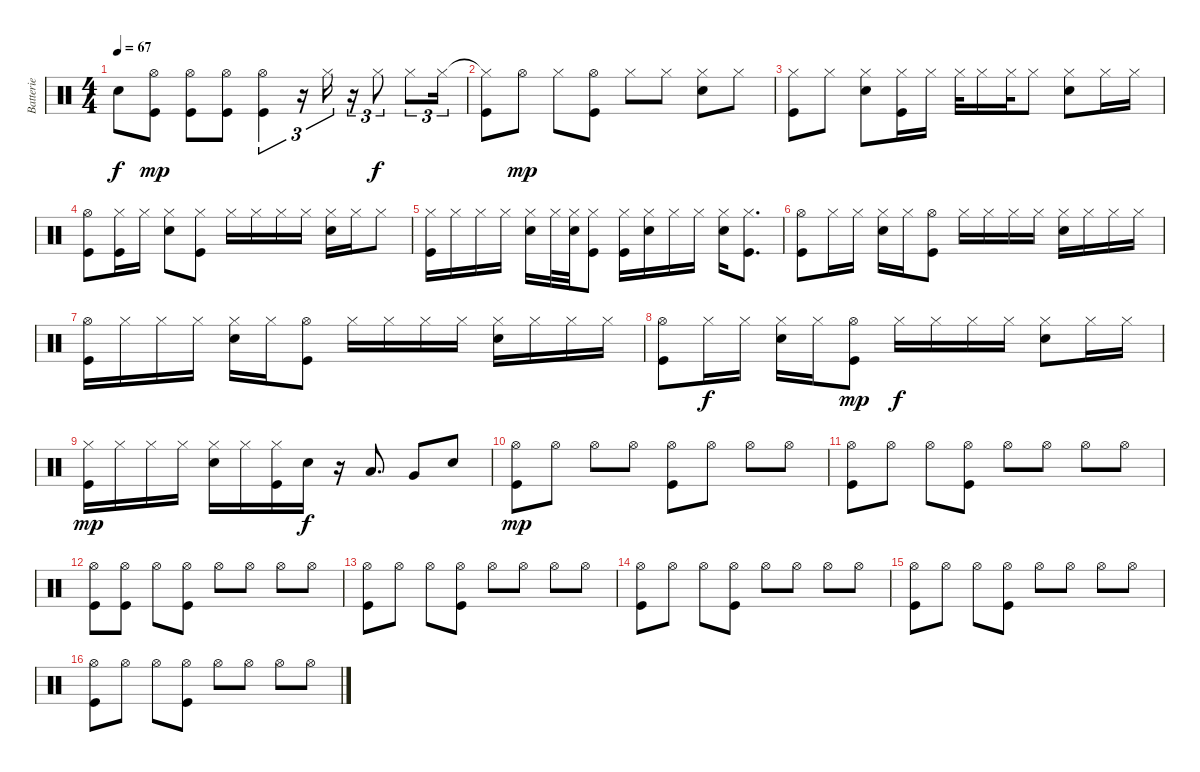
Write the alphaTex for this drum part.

\track ("Batterie" "Batterie") {instrument percussion}
\staff {score}
\articulation defaults
\ts (4 4)
\tempo 67
\clef neutral
\ks c "Snare (hit) 2".8{dy f}
("Hi-Hat (open)" "Kick (hit)").8{dy mp} ("Hi-Hat (open)" "Kick (hit)").8 ("Hi-Hat (open)" "Kick (hit)").8 ("Hi-Hat (open)" "Kick (hit)").4{tu (3 2)} r.16{tu (3 2)} "Hi-Hat (closed)".16{tu (3 2)} r.16{tu (3 2)} "Hi-Hat (closed)".8{tu (3 2) dy f} "Hi-Hat (closed)".8{tu (3 2)} "Hi-Hat (closed)".16{tu (3 2)} |
("Hi-Hat (closed)"{t} "Kick (hit)").8 "Hi-Hat (open)".8{dy mp} "Hi-Hat (closed)".8 ("Hi-Hat (open)" "Kick (hit)").8 "Hi-Hat (closed)".8 "Hi-Hat (closed)".8 ("Hi-Hat (closed)" "Snare (hit) 2").8 "Hi-Hat (closed)".8 |
("Hi-Hat (closed)" "Kick (hit)").8 "Hi-Hat (closed)".8 ("Hi-Hat (closed)" "Snare (hit) 2").8 ("Hi-Hat (closed)" "Kick (hit)").16 "Hi-Hat (closed)".16 "Hi-Hat (closed)".32 "Hi-Hat (closed)".16 "Hi-Hat (closed)".32 "Hi-Hat (closed)".8 ("Hi-Hat (closed)" "Snare (hit) 2").8 "Hi-Hat (closed)".16 "Hi-Hat (closed)".16 |
("Hi-Hat (open)" "Kick (hit)").8 ("Hi-Hat (closed)" "Kick (hit)").16 "Hi-Hat (closed)".16 ("Hi-Hat (closed)" "Snare (hit) 2").8 ("Hi-Hat (closed)" "Kick (hit)").8 "Hi-Hat (closed)".16 "Hi-Hat (closed)".16 "Hi-Hat (closed)".16 "Hi-Hat (closed)".16 ("Hi-Hat (closed)" "Snare (hit) 2").16 "Hi-Hat (closed)".16 "Hi-Hat (closed)".8 |
("Hi-Hat (closed)" "Kick (hit)").16 "Hi-Hat (closed)".16 "Hi-Hat (closed)".16 "Hi-Hat (closed)".16 ("Hi-Hat (closed)" "Snare (hit) 2").16 "Hi-Hat (closed)".32 ("Hi-Hat (closed)" "Snare (hit) 2").32 ("Hi-Hat (closed)" "Kick (hit)").8 ("Hi-Hat (closed)" "Kick (hit)").16 ("Hi-Hat (closed)" "Snare (hit) 2").16 "Hi-Hat (closed)".16 "Hi-Hat (closed)".16 ("Hi-Hat (closed)" "Snare (hit) 2").16 ("Hi-Hat (closed)" "Kick (hit)").8{d} |
("Hi-Hat (open)" "Kick (hit)").8 "Hi-Hat (closed)".16 "Hi-Hat (closed)".16 ("Hi-Hat (closed)" "Snare (hit) 2").16 "Hi-Hat (closed)".16 ("Hi-Hat (open)" "Kick (hit)").8 "Hi-Hat (closed)".16 "Hi-Hat (closed)".16 "Hi-Hat (closed)".16 "Hi-Hat (closed)".16 ("Hi-Hat (closed)" "Snare (hit) 2").16 "Hi-Hat (closed)".16 "Hi-Hat (closed)".16 "Hi-Hat (closed)".16 |
("Hi-Hat (open)" "Kick (hit)").16 "Hi-Hat (closed)".16 "Hi-Hat (closed)".16 "Hi-Hat (closed)".16 ("Hi-Hat (closed)" "Snare (hit) 2").16 "Hi-Hat (closed)".16 ("Hi-Hat (open)" "Kick (hit)").8 "Hi-Hat (closed)".16 "Hi-Hat (closed)".16 "Hi-Hat (closed)".16 "Hi-Hat (closed)".16 ("Hi-Hat (closed)" "Snare (hit) 2").16 "Hi-Hat (closed)".16 "Hi-Hat (closed)".16 "Hi-Hat (closed)".16 |
("Hi-Hat (open)" "Kick (hit)").8 "Hi-Hat (closed)".16{dy f} "Hi-Hat (closed)".16 ("Hi-Hat (closed)" "Snare (hit) 2").16 "Hi-Hat (closed)".16 ("Hi-Hat (open)" "Kick (hit)").8{dy mp} "Hi-Hat (closed)".16{dy f} "Hi-Hat (closed)".16 "Hi-Hat (closed)".16 "Hi-Hat (closed)".16 ("Hi-Hat (closed)" "Snare (hit) 2").8 "Hi-Hat (closed)".16 "Hi-Hat (closed)".16 |
("Hi-Hat (closed)" "Kick (hit)").16{dy mp} "Hi-Hat (closed)".16 "Hi-Hat (closed)".16 "Hi-Hat (closed)".16 ("Hi-Hat (closed)" "Snare (hit) 2").16 "Hi-Hat (closed)".16 ("Hi-Hat (closed)" "Kick (hit)").16 "Snare (hit) 2".16{dy f} r.16 "Low Tom (hit)".8{d} "Very Low Tom (hit)".8 "Snare (hit) 2".8 |
("Hi-Hat (open)" "Kick (hit)").8{dy mp} "Hi-Hat (open)".8 "Hi-Hat (open)".8 "Hi-Hat (open)".8 ("Hi-Hat (open)" "Kick (hit)").8 "Hi-Hat (open)".8 "Hi-Hat (open)".8 "Hi-Hat (open)".8 |
("Hi-Hat (open)" "Kick (hit)").8 "Hi-Hat (open)".8 "Hi-Hat (open)".8 ("Hi-Hat (open)" "Kick (hit)").8 "Hi-Hat (open)".8 "Hi-Hat (open)".8 "Hi-Hat (open)".8 "Hi-Hat (open)".8 |
("Hi-Hat (open)" "Kick (hit)").8 ("Hi-Hat (open)" "Kick (hit)").8 "Hi-Hat (open)".8 ("Hi-Hat (open)" "Kick (hit)").8 "Hi-Hat (open)".8 "Hi-Hat (open)".8 "Hi-Hat (open)".8 "Hi-Hat (open)".8 |
("Hi-Hat (open)" "Kick (hit)").8 "Hi-Hat (open)".8 "Hi-Hat (open)".8 ("Hi-Hat (open)" "Kick (hit)").8 "Hi-Hat (open)".8 "Hi-Hat (open)".8 "Hi-Hat (open)".8 "Hi-Hat (open)".8 |
("Hi-Hat (open)" "Kick (hit)").8 "Hi-Hat (open)".8 "Hi-Hat (open)".8 ("Hi-Hat (open)" "Kick (hit)").8 "Hi-Hat (open)".8 "Hi-Hat (open)".8 "Hi-Hat (open)".8 "Hi-Hat (open)".8 |
("Hi-Hat (open)" "Kick (hit)").8 "Hi-Hat (open)".8 "Hi-Hat (open)".8 ("Hi-Hat (open)" "Kick (hit)").8 "Hi-Hat (open)".8 "Hi-Hat (open)".8 "Hi-Hat (open)".8 "Hi-Hat (open)".8 |
("Hi-Hat (open)" "Kick (hit)").8 "Hi-Hat (open)".8 "Hi-Hat (open)".8 ("Hi-Hat (open)" "Kick (hit)").8 "Hi-Hat (open)".8 "Hi-Hat (open)".8 "Hi-Hat (open)".8 "Hi-Hat (open)".8
